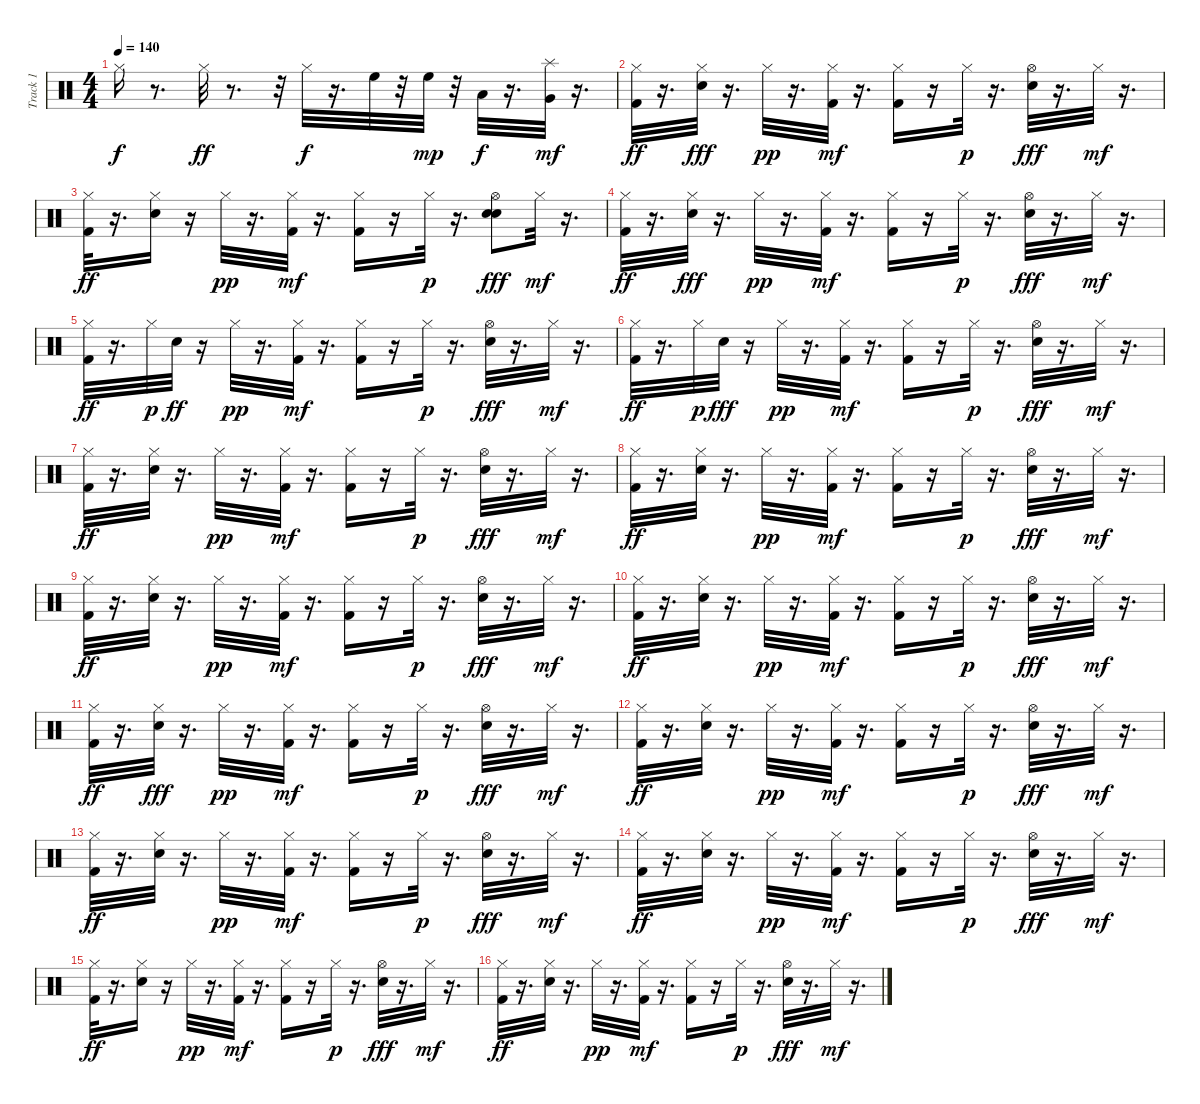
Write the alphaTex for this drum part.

\track ("Track 1" "Track 1") {instrument percussion}
\staff {score}
\articulation defaults
\ts (4 4)
\tempo 140
\clef neutral
\ks c "Hi-Hat (closed)".16{dy f}
r.8{d} "Hi-Hat (closed)".32{dy ff} r.8{d} r.32 "Hi-Hat (closed)".32{dy f} r.16{d} "High Floor Tom (hit)".32 r.32 "High Floor Tom (hit)".32{dy mp} r.32 "Low Tom (hit)".32{dy f} r.16{d} ("Very Low Tom (hit)" "Splash (hit)").32{dy mf} r.16{d} |
("Kick (hit) 2" "Hi-Hat (closed)").32{dy ff} r.16{d} ("Hi-Hat (closed)" "Electric Snare (hit)").32{dy fff} r.16{d} "Hi-Hat (closed)".32{dy pp} r.16{d} ("Kick (hit) 2" "Hi-Hat (closed)").32{dy mf} r.16{d} ("Kick (hit) 2" "Hi-Hat (closed)").16 r.16 "Hi-Hat (closed)".32{dy p} r.16{d} ("Electric Snare (hit)" "Hi-Hat (open)").32{dy fff} r.16{d} "Hi-Hat (closed)".32{dy mf} r.16{d} |
("Kick (hit) 2" "Hi-Hat (closed)").32{dy ff} r.16{d} ("Hi-Hat (closed)" "Electric Snare (hit)").16 r.16 "Hi-Hat (closed)".32{dy pp} r.16{d} ("Kick (hit) 2" "Hi-Hat (closed)").32{dy mf} r.16{d} ("Kick (hit) 2" "Hi-Hat (closed)").16 r.16 "Hi-Hat (closed)".32{dy p} r.16{d} ("Electric Snare (hit)" "Electric Snare (hit)" "Hi-Hat (open)").8{dy fff} "Hi-Hat (closed)".32{dy mf} r.16{d} |
("Kick (hit) 2" "Hi-Hat (closed)").32{dy ff} r.16{d} ("Hi-Hat (closed)" "Electric Snare (hit)").32{dy fff} r.16{d} "Hi-Hat (closed)".32{dy pp} r.16{d} ("Kick (hit) 2" "Hi-Hat (closed)").32{dy mf} r.16{d} ("Kick (hit) 2" "Hi-Hat (closed)").16 r.16 "Hi-Hat (closed)".32{dy p} r.16{d} ("Electric Snare (hit)" "Hi-Hat (open)").32{dy fff} r.16{d} "Hi-Hat (closed)".32{dy mf} r.16{d} |
("Kick (hit) 2" "Hi-Hat (closed)").32{dy ff} r.16{d} "Hi-Hat (closed)".32{dy p} "Electric Snare (hit)".32{dy ff} r.16 "Hi-Hat (closed)".32{dy pp} r.16{d} ("Kick (hit) 2" "Hi-Hat (closed)").32{dy mf} r.16{d} ("Kick (hit) 2" "Hi-Hat (closed)").16 r.16 "Hi-Hat (closed)".32{dy p} r.16{d} ("Electric Snare (hit)" "Hi-Hat (open)").32{dy fff} r.16{d} "Hi-Hat (closed)".32{dy mf} r.16{d} |
("Kick (hit) 2" "Hi-Hat (closed)").32{dy ff} r.16{d} "Hi-Hat (closed)".32{dy p} "Electric Snare (hit)".32{dy fff} r.16 "Hi-Hat (closed)".32{dy pp} r.16{d} ("Kick (hit) 2" "Hi-Hat (closed)").32{dy mf} r.16{d} ("Kick (hit) 2" "Hi-Hat (closed)").16 r.16 "Hi-Hat (closed)".32{dy p} r.16{d} ("Electric Snare (hit)" "Hi-Hat (open)").32{dy fff} r.16{d} "Hi-Hat (closed)".32{dy mf} r.16{d} |
("Kick (hit) 2" "Hi-Hat (closed)").32{dy ff} r.16{d} ("Hi-Hat (closed)" "Electric Snare (hit)").32 r.16{d} "Hi-Hat (closed)".32{dy pp} r.16{d} ("Kick (hit) 2" "Hi-Hat (closed)").32{dy mf} r.16{d} ("Kick (hit) 2" "Hi-Hat (closed)").16 r.16 "Hi-Hat (closed)".32{dy p} r.16{d} ("Electric Snare (hit)" "Hi-Hat (open)").32{dy fff} r.16{d} "Hi-Hat (closed)".32{dy mf} r.16{d} |
("Kick (hit) 2" "Hi-Hat (closed)").32{dy ff} r.16{d} ("Hi-Hat (closed)" "Electric Snare (hit)").32 r.16{d} "Hi-Hat (closed)".32{dy pp} r.16{d} ("Kick (hit) 2" "Hi-Hat (closed)").32{dy mf} r.16{d} ("Kick (hit) 2" "Hi-Hat (closed)").16 r.16 "Hi-Hat (closed)".32{dy p} r.16{d} ("Electric Snare (hit)" "Hi-Hat (open)").32{dy fff} r.16{d} "Hi-Hat (closed)".32{dy mf} r.16{d} |
("Kick (hit) 2" "Hi-Hat (closed)").32{dy ff} r.16{d} ("Hi-Hat (closed)" "Electric Snare (hit)").32 r.16{d} "Hi-Hat (closed)".32{dy pp} r.16{d} ("Kick (hit) 2" "Hi-Hat (closed)").32{dy mf} r.16{d} ("Kick (hit) 2" "Hi-Hat (closed)").16 r.16 "Hi-Hat (closed)".32{dy p} r.16{d} ("Electric Snare (hit)" "Hi-Hat (open)").32{dy fff} r.16{d} "Hi-Hat (closed)".32{dy mf} r.16{d} |
("Kick (hit) 2" "Hi-Hat (closed)").32{dy ff} r.16{d} ("Hi-Hat (closed)" "Electric Snare (hit)").32 r.16{d} "Hi-Hat (closed)".32{dy pp} r.16{d} ("Kick (hit) 2" "Hi-Hat (closed)").32{dy mf} r.16{d} ("Kick (hit) 2" "Hi-Hat (closed)").16 r.16 "Hi-Hat (closed)".32{dy p} r.16{d} ("Electric Snare (hit)" "Hi-Hat (open)").32{dy fff} r.16{d} "Hi-Hat (closed)".32{dy mf} r.16{d} |
("Kick (hit) 2" "Hi-Hat (closed)").32{dy ff} r.16{d} ("Hi-Hat (closed)" "Electric Snare (hit)").32{dy fff} r.16{d} "Hi-Hat (closed)".32{dy pp} r.16{d} ("Kick (hit) 2" "Hi-Hat (closed)").32{dy mf} r.16{d} ("Kick (hit) 2" "Hi-Hat (closed)").16 r.16 "Hi-Hat (closed)".32{dy p} r.16{d} ("Electric Snare (hit)" "Hi-Hat (open)").32{dy fff} r.16{d} "Hi-Hat (closed)".32{dy mf} r.16{d} |
("Kick (hit) 2" "Hi-Hat (closed)").32{dy ff} r.16{d} ("Hi-Hat (closed)" "Electric Snare (hit)").32 r.16{d} "Hi-Hat (closed)".32{dy pp} r.16{d} ("Kick (hit) 2" "Hi-Hat (closed)").32{dy mf} r.16{d} ("Kick (hit) 2" "Hi-Hat (closed)").16 r.16 "Hi-Hat (closed)".32{dy p} r.16{d} ("Electric Snare (hit)" "Hi-Hat (open)").32{dy fff} r.16{d} "Hi-Hat (closed)".32{dy mf} r.16{d} |
("Kick (hit) 2" "Hi-Hat (closed)").32{dy ff} r.16{d} ("Hi-Hat (closed)" "Electric Snare (hit)").32 r.16{d} "Hi-Hat (closed)".32{dy pp} r.16{d} ("Kick (hit) 2" "Hi-Hat (closed)").32{dy mf} r.16{d} ("Kick (hit) 2" "Hi-Hat (closed)").16 r.16 "Hi-Hat (closed)".32{dy p} r.16{d} ("Electric Snare (hit)" "Hi-Hat (open)").32{dy fff} r.16{d} "Hi-Hat (closed)".32{dy mf} r.16{d} |
("Kick (hit) 2" "Hi-Hat (closed)").32{dy ff} r.16{d} ("Hi-Hat (closed)" "Electric Snare (hit)").32 r.16{d} "Hi-Hat (closed)".32{dy pp} r.16{d} ("Kick (hit) 2" "Hi-Hat (closed)").32{dy mf} r.16{d} ("Kick (hit) 2" "Hi-Hat (closed)").16 r.16 "Hi-Hat (closed)".32{dy p} r.16{d} ("Electric Snare (hit)" "Hi-Hat (open)").32{dy fff} r.16{d} "Hi-Hat (closed)".32{dy mf} r.16{d} |
("Kick (hit) 2" "Hi-Hat (closed)").32{dy ff} r.16{d} ("Hi-Hat (closed)" "Electric Snare (hit)").16 r.16 "Hi-Hat (closed)".32{dy pp} r.16{d} ("Kick (hit) 2" "Hi-Hat (closed)").32{dy mf} r.16{d} ("Kick (hit) 2" "Hi-Hat (closed)").16 r.16 "Hi-Hat (closed)".32{dy p} r.16{d} ("Electric Snare (hit)" "Hi-Hat (open)").32{dy fff} r.16{d} "Hi-Hat (closed)".32{dy mf} r.16{d} |
("Kick (hit) 2" "Hi-Hat (closed)").32{dy ff} r.16{d} ("Hi-Hat (closed)" "Electric Snare (hit)").32 r.16{d} "Hi-Hat (closed)".32{dy pp} r.16{d} ("Kick (hit) 2" "Hi-Hat (closed)").32{dy mf} r.16{d} ("Kick (hit) 2" "Hi-Hat (closed)").16 r.16 "Hi-Hat (closed)".32{dy p} r.16{d} ("Electric Snare (hit)" "Hi-Hat (open)").32{dy fff} r.16{d} "Hi-Hat (closed)".32{dy mf} r.16{d}
